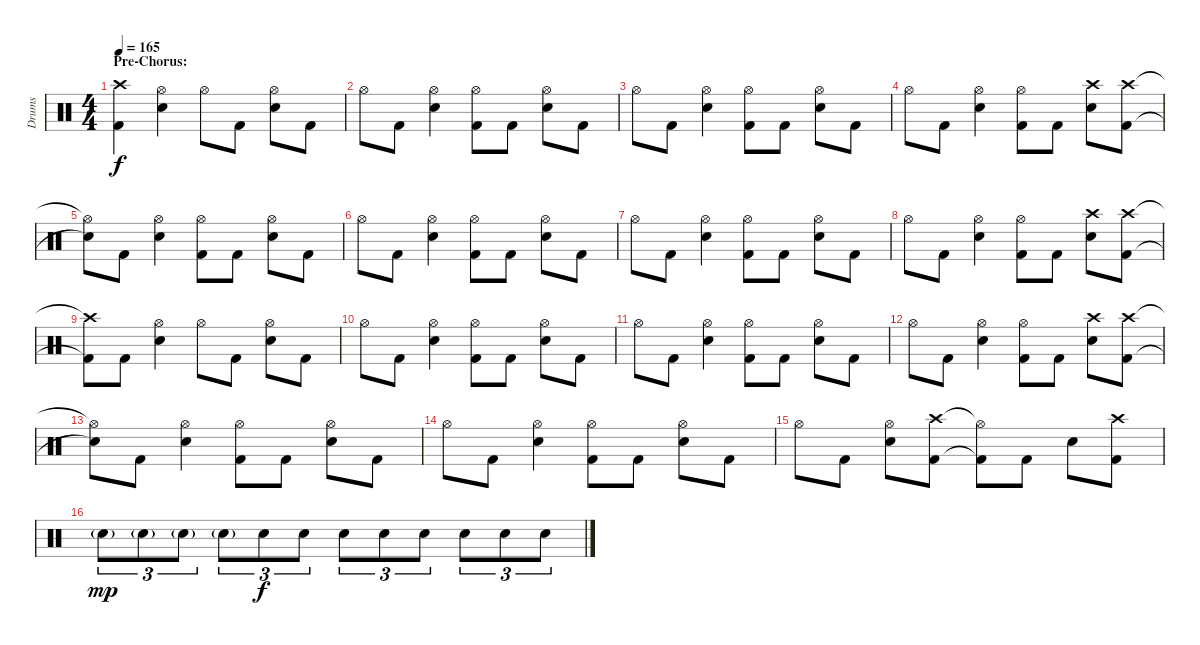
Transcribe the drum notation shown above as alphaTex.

\track ("Drums" "Drums") {instrument percussion}
\staff {score}
\articulation defaults
\ts (4 4)
\section ("" "Pre-Chorus:")
\tempo 165
\clef neutral
\ks c
("Crash high (hit)" "Kick (hit) 2").4{dy f} ("Hi-Hat (open)" "Electric Snare (hit)").4 "Hi-Hat (open)".8 "Kick (hit) 2".8 ("Hi-Hat (open)" "Electric Snare (hit)").8 "Kick (hit) 2".8 |
"Hi-Hat (open)".8 "Kick (hit) 2".8 ("Hi-Hat (open)" "Electric Snare (hit)").4 ("Hi-Hat (open)" "Kick (hit) 2").8 "Kick (hit) 2".8 ("Hi-Hat (open)" "Electric Snare (hit)").8 "Kick (hit) 2".8 |
"Hi-Hat (open)".8 "Kick (hit) 2".8 ("Hi-Hat (open)" "Electric Snare (hit)").4 ("Hi-Hat (open)" "Kick (hit) 2").8 "Kick (hit) 2".8 ("Hi-Hat (open)" "Electric Snare (hit)").8 "Kick (hit) 2".8 |
"Hi-Hat (open)".8 "Kick (hit) 2".8 ("Hi-Hat (open)" "Electric Snare (hit)").4 ("Hi-Hat (open)" "Kick (hit) 2").8 "Kick (hit) 2".8 ("Crash high (hit)" "Electric Snare (hit)").8 ("Crash high (hit)" "Kick (hit) 2").8 |
("Hi-Hat (open)"{t} "Snare (hit)"{t}).8 "Kick (hit) 2".8 ("Hi-Hat (open)" "Electric Snare (hit)").4 ("Hi-Hat (open)" "Kick (hit) 2").8 "Kick (hit) 2".8 ("Hi-Hat (open)" "Electric Snare (hit)").8 "Kick (hit) 2".8 |
"Hi-Hat (open)".8 "Kick (hit) 2".8 ("Hi-Hat (open)" "Electric Snare (hit)").4 ("Hi-Hat (open)" "Kick (hit) 2").8 "Kick (hit) 2".8 ("Hi-Hat (open)" "Electric Snare (hit)").8 "Kick (hit) 2".8 |
"Hi-Hat (open)".8 "Kick (hit) 2".8 ("Hi-Hat (open)" "Electric Snare (hit)").4 ("Hi-Hat (open)" "Kick (hit) 2").8 "Kick (hit) 2".8 ("Hi-Hat (open)" "Electric Snare (hit)").8 "Kick (hit) 2".8 |
"Hi-Hat (open)".8 "Kick (hit) 2".8 ("Hi-Hat (open)" "Electric Snare (hit)").4 ("Hi-Hat (open)" "Kick (hit) 2").8 "Kick (hit) 2".8 ("Crash high (hit)" "Electric Snare (hit)").8 ("Crash high (hit)" "Kick (hit) 2").8 |
("Crash high (hit)"{t} "Kick (hit) 2"{t}).8 "Kick (hit) 2".8 ("Hi-Hat (open)" "Electric Snare (hit)").4 "Hi-Hat (open)".8 "Kick (hit) 2".8 ("Hi-Hat (open)" "Electric Snare (hit)").8 "Kick (hit) 2".8 |
"Hi-Hat (open)".8 "Kick (hit) 2".8 ("Hi-Hat (open)" "Electric Snare (hit)").4 ("Hi-Hat (open)" "Kick (hit) 2").8 "Kick (hit) 2".8 ("Hi-Hat (open)" "Electric Snare (hit)").8 "Kick (hit) 2".8 |
"Hi-Hat (open)".8 "Kick (hit) 2".8 ("Hi-Hat (open)" "Electric Snare (hit)").4 ("Hi-Hat (open)" "Kick (hit) 2").8 "Kick (hit) 2".8 ("Hi-Hat (open)" "Electric Snare (hit)").8 "Kick (hit) 2".8 |
"Hi-Hat (open)".8 "Kick (hit) 2".8 ("Hi-Hat (open)" "Electric Snare (hit)").4 ("Hi-Hat (open)" "Kick (hit) 2").8 "Kick (hit) 2".8 ("Crash high (hit)" "Electric Snare (hit)").8 ("Crash high (hit)" "Kick (hit) 2").8 |
("Hi-Hat (open)"{t} "Snare (hit)"{t}).8 "Kick (hit) 2".8 ("Hi-Hat (open)" "Electric Snare (hit)").4 ("Hi-Hat (open)" "Kick (hit) 2").8 "Kick (hit) 2".8 ("Hi-Hat (open)" "Electric Snare (hit)").8 "Kick (hit) 2".8 |
"Hi-Hat (open)".8 "Kick (hit) 2".8 ("Hi-Hat (open)" "Electric Snare (hit)").4 ("Hi-Hat (open)" "Kick (hit) 2").8 "Kick (hit) 2".8 ("Hi-Hat (open)" "Electric Snare (hit)").8 "Kick (hit) 2".8 |
"Hi-Hat (open)".8 "Kick (hit) 2".8 ("Hi-Hat (open)" "Electric Snare (hit)").8 ("Crash high (hit)" "Kick (hit) 2").8 ("Hi-Hat (open)"{t} "Kick (hit) 2"{t}).8 "Kick (hit) 2".8 "Electric Snare (hit)".8 ("Crash high (hit)" "Kick (hit) 2").8 |
"Electric Snare (hit)"{g}.8{tu (3 2) dy mp} "Electric Snare (hit)"{g}.8{tu (3 2)} "Electric Snare (hit)"{g}.8{tu (3 2)} "Electric Snare (hit)"{g}.8{tu (3 2)} "Electric Snare (hit)".8{tu (3 2) dy f} "Electric Snare (hit)".8{tu (3 2)} "Electric Snare (hit)".8{tu (3 2)} "Electric Snare (hit)".8{tu (3 2)} "Electric Snare (hit)".8{tu (3 2)} "Electric Snare (hit)".8{tu (3 2)} "Electric Snare (hit)".8{tu (3 2)} "Electric Snare (hit)".8{tu (3 2)}
